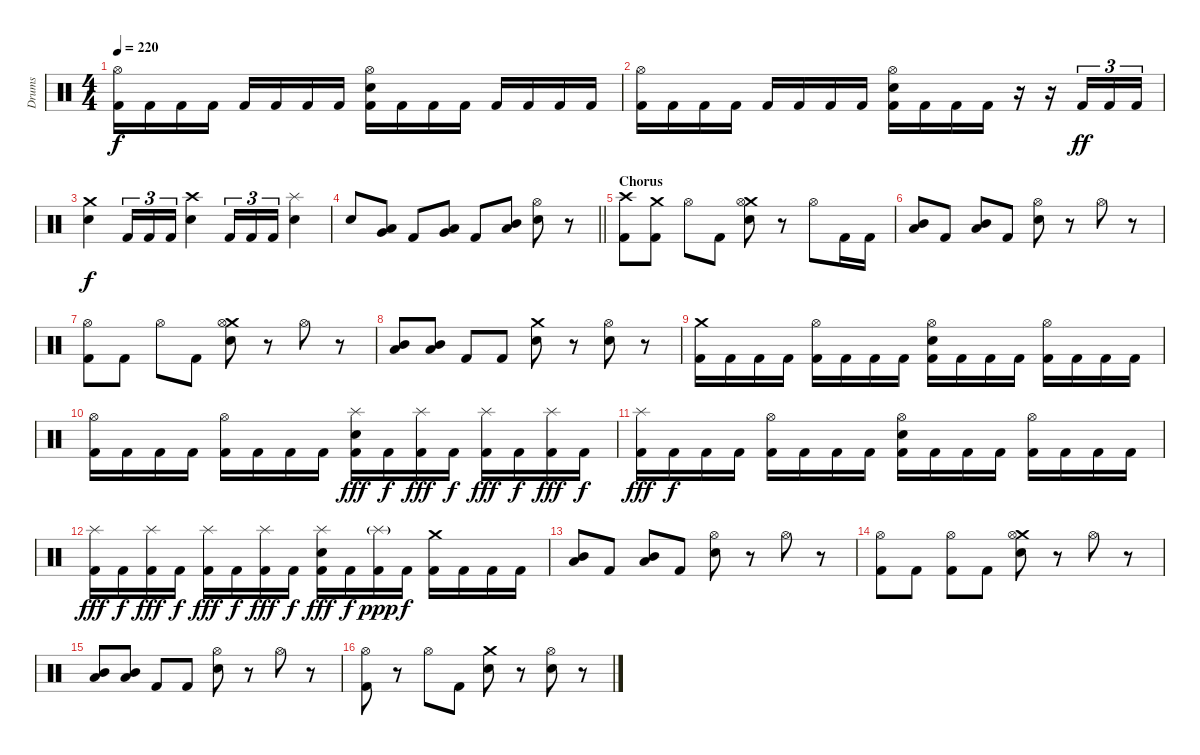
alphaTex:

\track ("Drums" "Drums") {instrument percussion}
\staff {score}
\articulation defaults
\ts (4 4)
\tempo 220
\clef neutral
\ks c
("Hi-Hat (open)" "Kick (hit) 2").16{dy f} "Kick (hit) 2".16 "Kick (hit) 2".16 "Kick (hit) 2".16 "Kick (hit) 2".16 "Kick (hit) 2".16 "Kick (hit) 2".16 "Kick (hit) 2".16 ("Hi-Hat (open)" "Electric Snare (hit)" "Kick (hit) 2").16 "Kick (hit) 2".16 "Kick (hit) 2".16 "Kick (hit) 2".16 "Kick (hit) 2".16 "Kick (hit) 2".16 "Kick (hit) 2".16 "Kick (hit) 2".16 |
("Hi-Hat (open)" "Kick (hit) 2").16 "Kick (hit) 2".16 "Kick (hit) 2".16 "Kick (hit) 2".16 "Kick (hit) 2".16 "Kick (hit) 2".16 "Kick (hit) 2".16 "Kick (hit) 2".16 ("Hi-Hat (open)" "Electric Snare (hit)" "Kick (hit) 2").16 "Kick (hit) 2".16 "Kick (hit) 2".16 "Kick (hit) 2".16 r.16 r.16 "Kick (hit) 2".16{tu (3 2) dy ff} "Kick (hit) 2".16{tu (3 2)} "Kick (hit) 2".16{tu (3 2)} |
("Crash medium (hit)" "Electric Snare (hit)").4{dy f} "Kick (hit) 2".16{tu (3 2)} "Kick (hit) 2".16{tu (3 2)} "Kick (hit) 2".16{tu (3 2)} ("Crash high (hit)" "Electric Snare (hit)").4 "Kick (hit) 2".16{tu (3 2)} "Kick (hit) 2".16{tu (3 2)} "Kick (hit) 2".16{tu (3 2)} ("Splash (hit)" "Electric Snare (hit)").4 |
\barLineRight lightlight "Electric Snare (hit)".8
("Very Low Tom (hit)" "Low Floor Tom (hit)").8 "Kick (hit) 2".8 ("Low Tom (hit)" "Very Low Tom (hit)").8 "Kick (hit) 2".8 ("Mid Tom (hit)" "Low Tom (hit)").8 ("Hi-Hat (open)" "Electric Snare (hit)").8 r.8 |
\section ("" "Chorus")
("Crash high (hit)" "Kick (hit) 2").8 ("Crash medium (hit)" "Kick (hit) 2").8 "Hi-Hat (open)".8 "Kick (hit) 2".8 ("Crash medium (hit)" "Hi-Hat (open)" "Electric Snare (hit)").8 r.8 "Hi-Hat (open)".8 "Kick (hit) 2".16 "Kick (hit) 2".16 |
("Mid Tom (hit)" "Low Tom (hit)").8 "Kick (hit) 2".8 ("Mid Tom (hit)" "Low Tom (hit)").8 "Kick (hit) 2".8 ("Hi-Hat (open)" "Electric Snare (hit)").8 r.8 "Hi-Hat (open)".8 r.8 |
("Hi-Hat (open)" "Kick (hit) 2").8 "Kick (hit) 2".8 "Hi-Hat (open)".8 "Kick (hit) 2".8 ("Crash medium (hit)" "Hi-Hat (open)" "Electric Snare (hit)").8 r.8 "Hi-Hat (open)".8 r.8 |
("Mid Tom (hit)" "Low Tom (hit)").8 ("Mid Tom (hit)" "Low Tom (hit)").8 "Kick (hit) 2".8 "Kick (hit) 2".8 ("Crash medium (hit)" "Electric Snare (hit)").8 r.8 ("Hi-Hat (open)" "Electric Snare (hit)").8 r.8 |
("Crash medium (hit)" "Kick (hit) 2").16 "Kick (hit) 2".16 "Kick (hit) 2".16 "Kick (hit) 2".16 ("Hi-Hat (open)" "Kick (hit) 2").16 "Kick (hit) 2".16 "Kick (hit) 2".16 "Kick (hit) 2".16 ("Hi-Hat (open)" "Electric Snare (hit)" "Kick (hit) 2").16 "Kick (hit) 2".16 "Kick (hit) 2".16 "Kick (hit) 2".16 ("Hi-Hat (open)" "Kick (hit) 2").16 "Kick (hit) 2".16 "Kick (hit) 2".16 "Kick (hit) 2".16 |
("Hi-Hat (open)" "Kick (hit) 2").16 "Kick (hit) 2".16 "Kick (hit) 2".16 "Kick (hit) 2".16 ("Hi-Hat (open)" "Kick (hit) 2").16 "Kick (hit) 2".16 "Kick (hit) 2".16 "Kick (hit) 2".16 ("Splash (hit)" "Electric Snare (hit)" "Kick (hit) 2").16{dy fff} "Kick (hit) 2".16{dy f} ("Splash (hit)" "Kick (hit) 2").16{dy fff} "Kick (hit) 2".16{dy f} ("Splash (hit)" "Kick (hit) 2").16{dy fff} "Kick (hit) 2".16{dy f} ("Splash (hit)" "Kick (hit) 2").16{dy fff} "Kick (hit) 2".16{dy f} |
("Splash (hit)" "Kick (hit) 2").16{dy fff} "Kick (hit) 2".16{dy f} "Kick (hit) 2".16 "Kick (hit) 2".16 ("Hi-Hat (open)" "Kick (hit) 2").16 "Kick (hit) 2".16 "Kick (hit) 2".16 "Kick (hit) 2".16 ("Hi-Hat (open)" "Electric Snare (hit)" "Kick (hit) 2").16 "Kick (hit) 2".16 "Kick (hit) 2".16 "Kick (hit) 2".16 ("Hi-Hat (open)" "Kick (hit) 2").16 "Kick (hit) 2".16 "Kick (hit) 2".16 "Kick (hit) 2".16 |
("Splash (hit)" "Kick (hit) 2").16{dy fff} "Kick (hit) 2".16{dy f} ("Splash (hit)" "Kick (hit) 2").16{dy fff} "Kick (hit) 2".16{dy f} ("Splash (hit)" "Kick (hit) 2").16{dy fff} "Kick (hit) 2".16{dy f} ("Splash (hit)" "Kick (hit) 2").16{dy fff} "Kick (hit) 2".16{dy f} ("Splash (hit)" "Electric Snare (hit)" "Kick (hit) 2").16{dy fff} "Kick (hit) 2".16{dy f} ("Splash (hit)"{g} "Kick (hit) 2").16{dy ppp} "Kick (hit) 2".16{dy f} ("Crash medium (hit)" "Kick (hit) 2").16 "Kick (hit) 2".16 "Kick (hit) 2".16 "Kick (hit) 2".16 |
("Mid Tom (hit)" "Low Tom (hit)").8 "Kick (hit) 2".8 ("Mid Tom (hit)" "Low Tom (hit)").8 "Kick (hit) 2".8 ("Hi-Hat (open)" "Electric Snare (hit)").8 r.8 "Hi-Hat (open)".8 r.8 |
("Hi-Hat (open)" "Kick (hit) 2").8 "Kick (hit) 2".8 ("Hi-Hat (open)" "Kick (hit) 2").8 "Kick (hit) 2".8 ("Crash medium (hit)" "Hi-Hat (open)" "Electric Snare (hit)").8 r.8 "Hi-Hat (open)".8 r.8 |
("Mid Tom (hit)" "Low Tom (hit)").8 ("Mid Tom (hit)" "Low Tom (hit)").8 "Kick (hit) 2".8 "Kick (hit) 2".8 ("Hi-Hat (open)" "Electric Snare (hit)").8 r.8 "Hi-Hat (open)".8 r.8 |
("Hi-Hat (open)" "Kick (hit) 2").8 r.8 "Hi-Hat (open)".8 "Kick (hit) 2".8 ("Crash medium (hit)" "Electric Snare (hit)").8 r.8 ("Hi-Hat (open)" "Electric Snare (hit)").8 r.8
